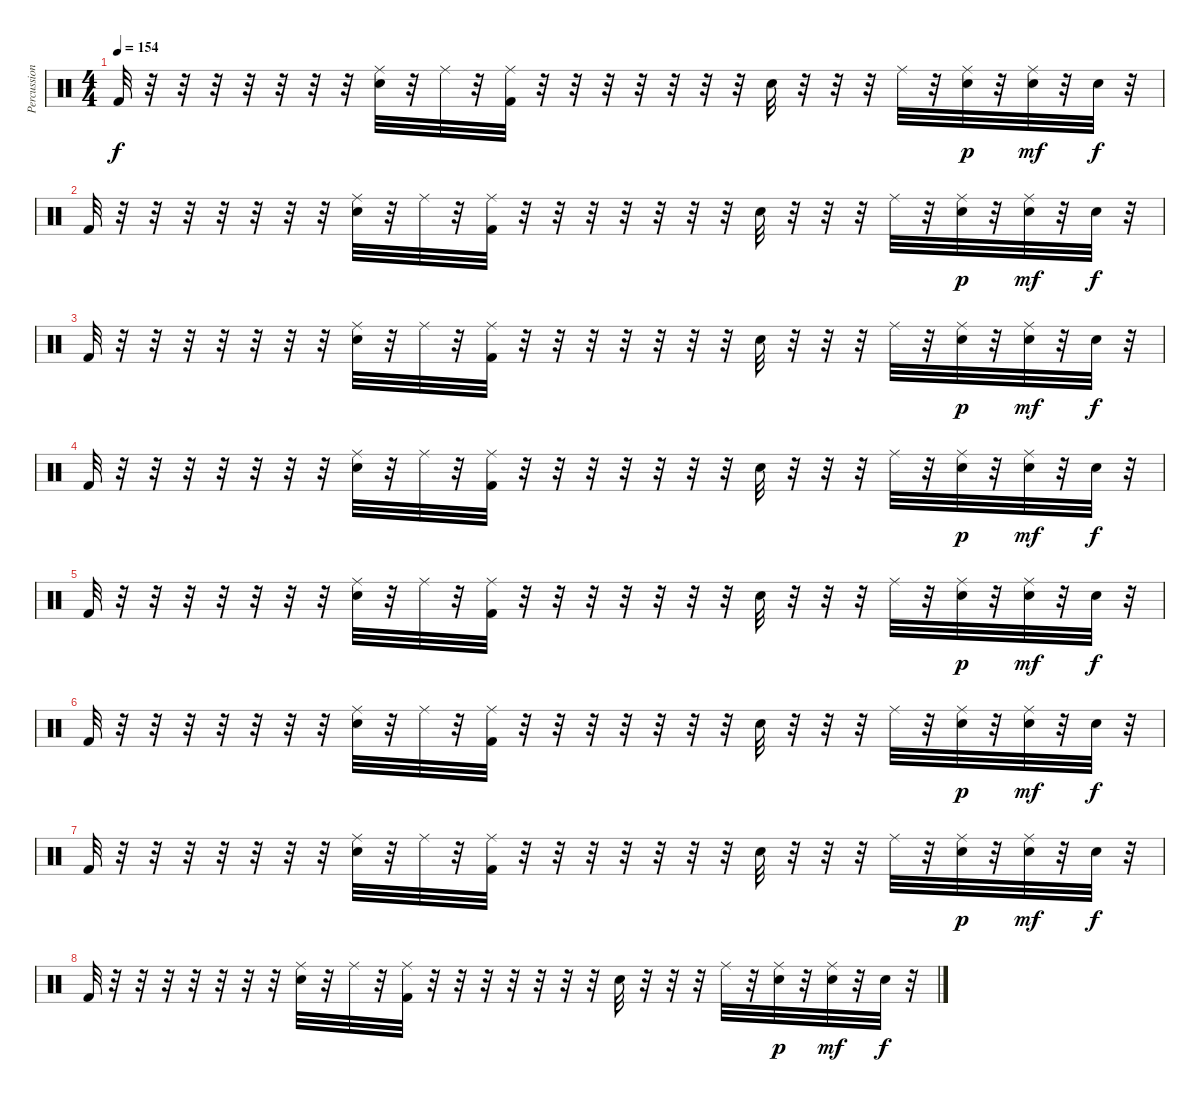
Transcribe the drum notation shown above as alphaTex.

\track ("Percussion" "Percussion") {instrument percussion}
\staff {score}
\articulation defaults
\ts (4 4)
\tempo 154
\clef neutral
\ks c "Kick (hit) 2".32{dy f}
r.32 r.32 r.32 r.32 r.32 r.32 r.32 ("Snare (hit) 2" "Ride (middle)").32 r.32 "Ride (middle)".32 r.32 ("Kick (hit) 2" "Ride (middle)").32 r.32 r.32 r.32 r.32 r.32 r.32 r.32 "Snare (hit) 2".32 r.32 r.32 r.32 "Ride (middle)".32 r.32 ("Snare (hit) 2" "Ride (middle)").32{dy p} r.32 ("Snare (hit) 2" "Ride (middle)").32{dy mf} r.32 "Snare (hit) 2".32{dy f} r.32 |
"Kick (hit) 2".32 r.32 r.32 r.32 r.32 r.32 r.32 r.32 ("Snare (hit) 2" "Ride (middle)").32 r.32 "Ride (middle)".32 r.32 ("Kick (hit) 2" "Ride (middle)").32 r.32 r.32 r.32 r.32 r.32 r.32 r.32 "Snare (hit) 2".32 r.32 r.32 r.32 "Ride (middle)".32 r.32 ("Snare (hit) 2" "Ride (middle)").32{dy p} r.32 ("Snare (hit) 2" "Ride (middle)").32{dy mf} r.32 "Snare (hit) 2".32{dy f} r.32 |
"Kick (hit) 2".32 r.32 r.32 r.32 r.32 r.32 r.32 r.32 ("Snare (hit) 2" "Ride (middle)").32 r.32 "Ride (middle)".32 r.32 ("Kick (hit) 2" "Ride (middle)").32 r.32 r.32 r.32 r.32 r.32 r.32 r.32 "Snare (hit) 2".32 r.32 r.32 r.32 "Ride (middle)".32 r.32 ("Snare (hit) 2" "Ride (middle)").32{dy p} r.32 ("Snare (hit) 2" "Ride (middle)").32{dy mf} r.32 "Snare (hit) 2".32{dy f} r.32 |
"Kick (hit) 2".32 r.32 r.32 r.32 r.32 r.32 r.32 r.32 ("Snare (hit) 2" "Ride (middle)").32 r.32 "Ride (middle)".32 r.32 ("Kick (hit) 2" "Ride (middle)").32 r.32 r.32 r.32 r.32 r.32 r.32 r.32 "Snare (hit) 2".32 r.32 r.32 r.32 "Ride (middle)".32 r.32 ("Snare (hit) 2" "Ride (middle)").32{dy p} r.32 ("Snare (hit) 2" "Ride (middle)").32{dy mf} r.32 "Snare (hit) 2".32{dy f} r.32 |
"Kick (hit) 2".32 r.32 r.32 r.32 r.32 r.32 r.32 r.32 ("Snare (hit) 2" "Ride (middle)").32 r.32 "Ride (middle)".32 r.32 ("Kick (hit) 2" "Ride (middle)").32 r.32 r.32 r.32 r.32 r.32 r.32 r.32 "Snare (hit) 2".32 r.32 r.32 r.32 "Ride (middle)".32 r.32 ("Snare (hit) 2" "Ride (middle)").32{dy p} r.32 ("Snare (hit) 2" "Ride (middle)").32{dy mf} r.32 "Snare (hit) 2".32{dy f} r.32 |
"Kick (hit) 2".32 r.32 r.32 r.32 r.32 r.32 r.32 r.32 ("Snare (hit) 2" "Ride (middle)").32 r.32 "Ride (middle)".32 r.32 ("Kick (hit) 2" "Ride (middle)").32 r.32 r.32 r.32 r.32 r.32 r.32 r.32 "Snare (hit) 2".32 r.32 r.32 r.32 "Ride (middle)".32 r.32 ("Snare (hit) 2" "Ride (middle)").32{dy p} r.32 ("Snare (hit) 2" "Ride (middle)").32{dy mf} r.32 "Snare (hit) 2".32{dy f} r.32 |
"Kick (hit) 2".32 r.32 r.32 r.32 r.32 r.32 r.32 r.32 ("Snare (hit) 2" "Ride (middle)").32 r.32 "Ride (middle)".32 r.32 ("Kick (hit) 2" "Ride (middle)").32 r.32 r.32 r.32 r.32 r.32 r.32 r.32 "Snare (hit) 2".32 r.32 r.32 r.32 "Ride (middle)".32 r.32 ("Snare (hit) 2" "Ride (middle)").32{dy p} r.32 ("Snare (hit) 2" "Ride (middle)").32{dy mf} r.32 "Snare (hit) 2".32{dy f} r.32 |
"Kick (hit) 2".32 r.32 r.32 r.32 r.32 r.32 r.32 r.32 ("Snare (hit) 2" "Ride (middle)").32 r.32 "Ride (middle)".32 r.32 ("Kick (hit) 2" "Ride (middle)").32 r.32 r.32 r.32 r.32 r.32 r.32 r.32 "Snare (hit) 2".32 r.32 r.32 r.32 "Ride (middle)".32 r.32 ("Snare (hit) 2" "Ride (middle)").32{dy p} r.32 ("Snare (hit) 2" "Ride (middle)").32{dy mf} r.32 "Snare (hit) 2".32{dy f} r.32
